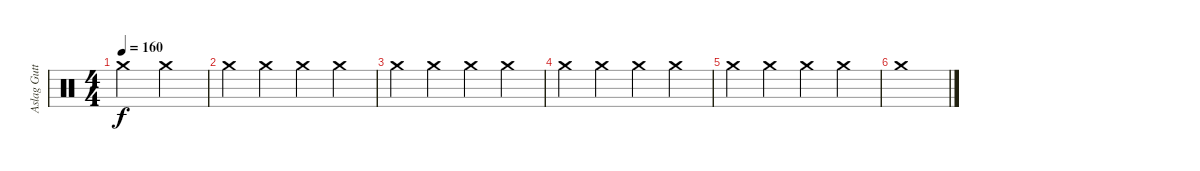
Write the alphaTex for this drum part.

\track ("Aslag Guttormsgaard (sledgehammer,stove)" "Aslag Gutt") {instrument percussion}
\staff {score}
\articulation defaults
\ts (4 4)
\tempo 160
\clef neutral
\ks c "Crash medium (hit)".2{dy f} "Crash medium (hit)".2
|
"Crash medium (hit)".4 "Crash medium (hit)".4 "Crash medium (hit)".4 "Crash medium (hit)".4 |
"Crash medium (hit)".4 "Crash medium (hit)".4 "Crash medium (hit)".4 "Crash medium (hit)".4 |
"Crash medium (hit)".4 "Crash medium (hit)".4 "Crash medium (hit)".4 "Crash medium (hit)".4 |
"Crash medium (hit)".4 "Crash medium (hit)".4 "Crash medium (hit)".4 "Crash medium (hit)".4 |
"Crash medium (hit)".1
